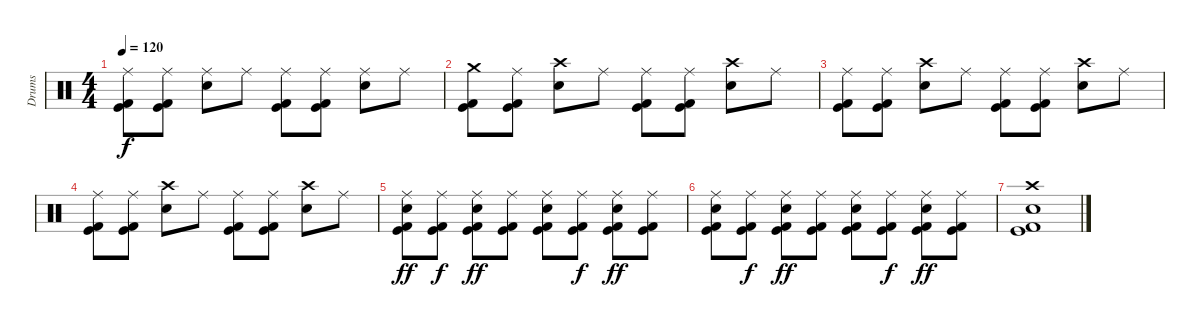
\track ("Drums" "Drums") {instrument percussion}
\staff {score}
\articulation defaults
\ts (4 4)
\tempo 120
\clef neutral
\ks c
("Ride (middle)" "Kick (hit)" "Kick (hit) 2").8{dy f} ("Ride (middle)" "Kick (hit)" "Kick (hit) 2").8 ("Ride (middle)" "Electric Snare (hit)").8 "Ride (middle)".8 ("Ride (middle)" "Kick (hit)" "Kick (hit) 2").8 ("Ride (middle)" "Kick (hit)" "Kick (hit) 2").8 ("Ride (middle)" "Electric Snare (hit)").8 "Ride (middle)".8 |
("Crash medium (hit)" "Kick (hit)" "Kick (hit) 2").8 ("Ride (middle)" "Kick (hit)" "Kick (hit) 2").8 ("Crash high (hit)" "Electric Snare (hit)").8 "Ride (middle)".8 ("Ride (middle)" "Kick (hit)" "Kick (hit) 2").8 ("Ride (middle)" "Kick (hit)" "Kick (hit) 2").8 ("Crash high (hit)" "Electric Snare (hit)").8 "Ride (middle)".8 |
("Ride (middle)" "Kick (hit)" "Kick (hit) 2").8 ("Ride (middle)" "Kick (hit)" "Kick (hit) 2").8 ("Crash high (hit)" "Electric Snare (hit)").8 "Ride (middle)".8 ("Ride (middle)" "Kick (hit)" "Kick (hit) 2").8 ("Ride (middle)" "Kick (hit)" "Kick (hit) 2").8 ("Crash high (hit)" "Electric Snare (hit)").8 "Ride (middle)".8 |
("Ride (middle)" "Kick (hit)" "Kick (hit) 2").8 ("Ride (middle)" "Kick (hit)" "Kick (hit) 2").8 ("Crash high (hit)" "Electric Snare (hit)").8 "Ride (middle)".8 ("Ride (middle)" "Kick (hit)" "Kick (hit) 2").8 ("Ride (middle)" "Kick (hit)" "Kick (hit) 2").8 ("Crash high (hit)" "Electric Snare (hit)").8 "Ride (middle)".8 |
("Ride (middle)" "Electric Snare (hit)" "Kick (hit)" "Kick (hit) 2").8{dy ff} ("Ride (middle)" "Kick (hit)" "Kick (hit) 2").8{dy f} ("Ride (middle)" "Electric Snare (hit)" "Kick (hit)" "Kick (hit) 2").8{dy ff} ("Ride (middle)" "Kick (hit)" "Kick (hit) 2").8 ("Ride (middle)" "Electric Snare (hit)" "Kick (hit)" "Kick (hit) 2").8 ("Ride (middle)" "Kick (hit)" "Kick (hit) 2").8{dy f} ("Ride (middle)" "Electric Snare (hit)" "Kick (hit)" "Kick (hit) 2").8{dy ff} ("Ride (middle)" "Kick (hit)" "Kick (hit) 2").8 |
("Ride (middle)" "Electric Snare (hit)" "Kick (hit)" "Kick (hit) 2").8 ("Ride (middle)" "Kick (hit)" "Kick (hit) 2").8{dy f} ("Ride (middle)" "Electric Snare (hit)" "Kick (hit)" "Kick (hit) 2").8{dy ff} ("Ride (middle)" "Kick (hit)" "Kick (hit) 2").8 ("Ride (middle)" "Electric Snare (hit)" "Kick (hit)" "Kick (hit) 2").8 ("Ride (middle)" "Kick (hit)" "Kick (hit) 2").8{dy f} ("Ride (middle)" "Electric Snare (hit)" "Kick (hit)" "Kick (hit) 2").8{dy ff} ("Ride (middle)" "Kick (hit)" "Kick (hit) 2").8 |
("Crash high (hit)" "Electric Snare (hit)" "Kick (hit)" "Kick (hit) 2").1
